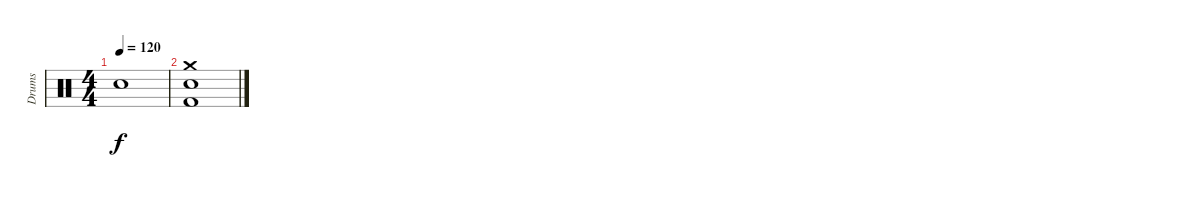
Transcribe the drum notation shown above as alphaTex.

\track ("Drums" "Drums") {instrument percussion}
\staff {score}
\articulation defaults
\ts (4 4)
\tempo 120
\clef neutral
\ks c "Snare (hit)"{t}.1{dy f}
|
("Crash medium (hit)" "Electric Snare (hit)" "Kick (hit) 2").1
